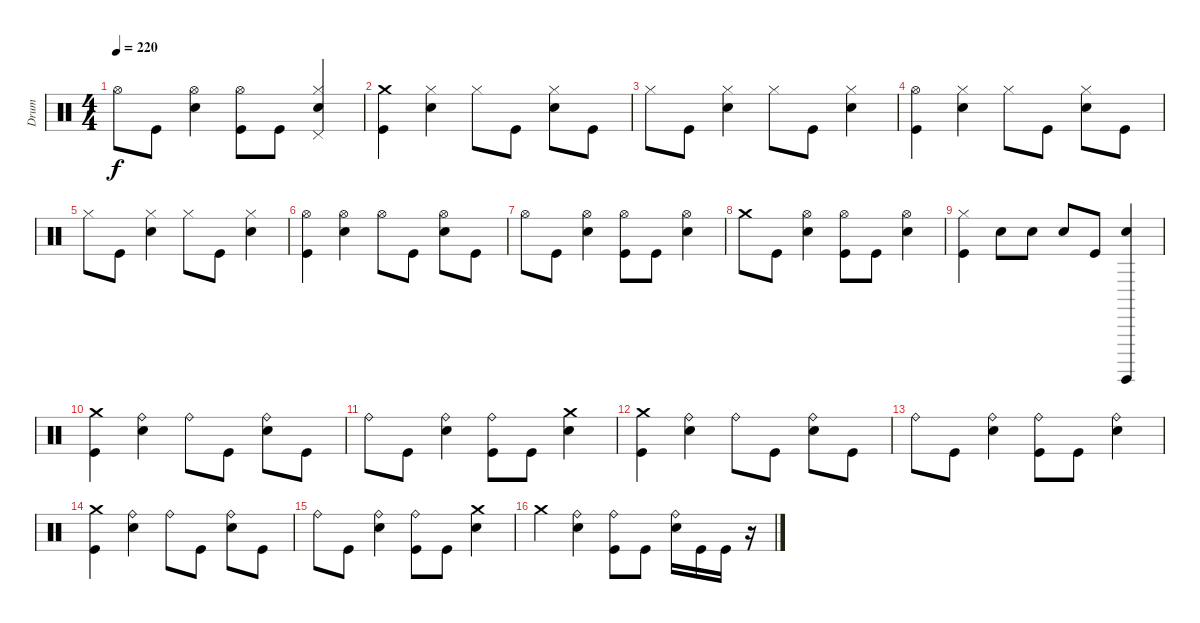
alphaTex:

\track ("Drum" "Drum") {instrument percussion}
\staff {score}
\articulation defaults
\ts (4 4)
\tempo 220
\clef neutral
\ks c "Hi-Hat (open)".8{dy f} "Kick (hit)".8
("Hi-Hat (open)" "Snare (hit) 2").4 ("Hi-Hat (open)" "Kick (hit)").8 "Kick (hit)".8 ("Hi-Hat (closed)" "Pedal Hi-Hat (hit)" "Snare (hit) 2").4 |
("Crash medium (hit)" "Kick (hit)").4 ("Hi-Hat (closed)" "Snare (hit) 2").4 "Hi-Hat (closed)".8 "Kick (hit)".8 ("Hi-Hat (closed)" "Snare (hit) 2").8 "Kick (hit)".8 |
"Hi-Hat (closed)".8 "Kick (hit)".8 ("Hi-Hat (closed)" "Snare (hit) 2").4 "Hi-Hat (closed)".8 "Kick (hit)".8 ("Hi-Hat (closed)" "Snare (hit) 2").4 |
("Hi-Hat (open)" "Kick (hit)").4 ("Hi-Hat (closed)" "Snare (hit) 2").4 "Hi-Hat (closed)".8 "Kick (hit)".8 ("Hi-Hat (closed)" "Snare (hit) 2").8 "Kick (hit)".8 |
"Hi-Hat (closed)".8 "Kick (hit)".8 ("Hi-Hat (closed)" "Snare (hit) 2").4 "Hi-Hat (closed)".8 "Kick (hit)".8 ("Hi-Hat (closed)" "Snare (hit) 2").4 |
("Hi-Hat (open)" "Kick (hit)").4 ("Hi-Hat (open)" "Snare (hit) 2").4 "Hi-Hat (open)".8 "Kick (hit)".8 ("Hi-Hat (open)" "Snare (hit) 2").8 "Kick (hit)".8 |
"Hi-Hat (open)".8 "Kick (hit)".8 ("Hi-Hat (open)" "Snare (hit) 2").4 ("Hi-Hat (open)" "Kick (hit)").8 "Kick (hit)".8 ("Hi-Hat (open)" "Snare (hit) 2").4 |
"Crash medium (hit)".8 "Kick (hit)".8 ("Hi-Hat (open)" "Snare (hit) 2").4 ("Hi-Hat (open)" "Kick (hit)").8 "Kick (hit)".8 ("Hi-Hat (open)" "Snare (hit) 2").4 |
("Hi-Hat (closed)" "Kick (hit)").4 "Snare (hit) 2".8 "Snare (hit) 2".8 "Snare (hit) 2".8 "Kick (hit)".8 ("Snare (hit) 2" "Surdo (hit)").4 |
("Crash medium (hit)" "Kick (hit)").4 ("Ride (bell)" "Snare (hit) 2").4 "Ride (bell)".8 "Kick (hit)".8 ("Ride (bell)" "Snare (hit) 2").8 "Kick (hit)".8 |
"Ride (bell)".8 "Kick (hit)".8 ("Ride (bell)" "Snare (hit) 2").4 ("Ride (bell)" "Kick (hit)").8 "Kick (hit)".8 ("Crash medium (hit)" "Snare (hit) 2").4 |
("Crash medium (hit)" "Kick (hit)").4 ("Ride (bell)" "Snare (hit) 2").4 "Ride (bell)".8 "Kick (hit)".8 ("Ride (bell)" "Snare (hit) 2").8 "Kick (hit)".8 |
"Ride (bell)".8 "Kick (hit)".8 ("Ride (bell)" "Snare (hit) 2").4 ("Ride (bell)" "Kick (hit)").8 "Kick (hit)".8 ("Ride (bell)" "Snare (hit) 2").4 |
("Crash medium (hit)" "Kick (hit)").4 ("Ride (bell)" "Snare (hit) 2").4 "Ride (bell)".8 "Kick (hit)".8 ("Ride (bell)" "Snare (hit) 2").8 "Kick (hit)".8 |
"Ride (bell)".8 "Kick (hit)".8 ("Ride (bell)" "Snare (hit) 2").4 ("Ride (bell)" "Kick (hit)").8 "Kick (hit)".8 ("Crash medium (hit)" "Snare (hit) 2").4 |
"Crash medium (hit)".4 ("Ride (bell)" "Snare (hit) 2").4 ("Ride (bell)" "Kick (hit)").8 "Kick (hit)".8 ("Ride (bell)" "Snare (hit) 2").16 "Kick (hit)".16 "Kick (hit)".16 r.16
